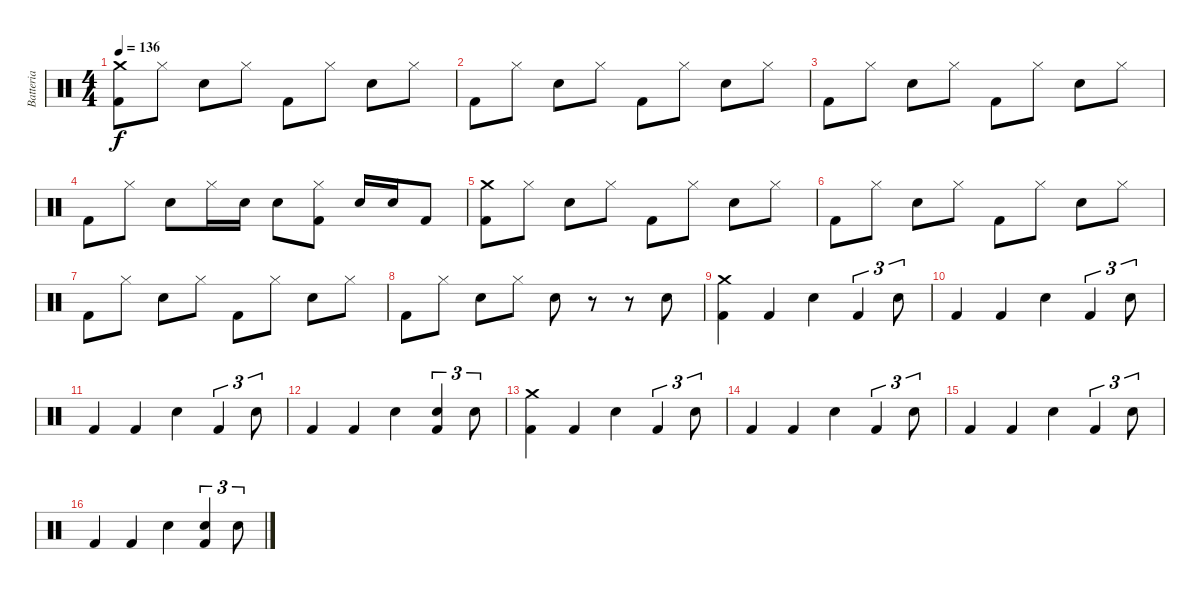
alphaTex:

\track ("Batteria" "Batteria") {instrument percussion}
\staff {score}
\articulation defaults
\ts (4 4)
\tempo 136
\clef neutral
\ks c
("Crash medium (hit)" "Kick (hit) 2").8{dy f} "Hi-Hat (closed)".8 "Electric Snare (hit)".8 "Hi-Hat (closed)".8 "Kick (hit) 2".8 "Hi-Hat (closed)".8 "Electric Snare (hit)".8 "Hi-Hat (closed)".8 |
"Kick (hit) 2".8 "Hi-Hat (closed)".8 "Electric Snare (hit)".8 "Hi-Hat (closed)".8 "Kick (hit) 2".8 "Hi-Hat (closed)".8 "Electric Snare (hit)".8 "Hi-Hat (closed)".8 |
"Kick (hit) 2".8 "Hi-Hat (closed)".8 "Electric Snare (hit)".8 "Hi-Hat (closed)".8 "Kick (hit) 2".8 "Hi-Hat (closed)".8 "Electric Snare (hit)".8 "Hi-Hat (closed)".8 |
"Kick (hit) 2".8 "Hi-Hat (closed)".8 "Electric Snare (hit)".8 "Hi-Hat (closed)".16 "Electric Snare (hit)".16 "Electric Snare (hit)".8 ("Kick (hit) 2" "Hi-Hat (closed)").8 "Electric Snare (hit)".16 "Electric Snare (hit)".16 "Kick (hit) 2".8 |
("Crash medium (hit)" "Kick (hit) 2").8 "Hi-Hat (closed)".8 "Electric Snare (hit)".8 "Hi-Hat (closed)".8 "Kick (hit) 2".8 "Hi-Hat (closed)".8 "Electric Snare (hit)".8 "Hi-Hat (closed)".8 |
"Kick (hit) 2".8 "Hi-Hat (closed)".8 "Electric Snare (hit)".8 "Hi-Hat (closed)".8 "Kick (hit) 2".8 "Hi-Hat (closed)".8 "Electric Snare (hit)".8 "Hi-Hat (closed)".8 |
"Kick (hit) 2".8 "Hi-Hat (closed)".8 "Electric Snare (hit)".8 "Hi-Hat (closed)".8 "Kick (hit) 2".8 "Hi-Hat (closed)".8 "Electric Snare (hit)".8 "Hi-Hat (closed)".8 |
"Kick (hit) 2".8 "Hi-Hat (closed)".8 "Electric Snare (hit)".8 "Hi-Hat (closed)".8 "Electric Snare (hit)".8 r.8 r.8 "Electric Snare (hit)".8 |
("Crash medium (hit)" "Kick (hit) 2").4 "Kick (hit) 2".4 "Electric Snare (hit)".4 "Kick (hit) 2".4{tu (3 2)} "Electric Snare (hit)".8{tu (3 2)} |
"Kick (hit) 2".4 "Kick (hit) 2".4 "Electric Snare (hit)".4 "Kick (hit) 2".4{tu (3 2)} "Electric Snare (hit)".8{tu (3 2)} |
"Kick (hit) 2".4 "Kick (hit) 2".4 "Electric Snare (hit)".4 "Kick (hit) 2".4{tu (3 2)} "Electric Snare (hit)".8{tu (3 2)} |
"Kick (hit) 2".4 "Kick (hit) 2".4 "Electric Snare (hit)".4 ("Electric Snare (hit)" "Kick (hit) 2").4{tu (3 2)} "Electric Snare (hit)".8{tu (3 2)} |
("Crash medium (hit)" "Kick (hit) 2").4 "Kick (hit) 2".4 "Electric Snare (hit)".4 "Kick (hit) 2".4{tu (3 2)} "Electric Snare (hit)".8{tu (3 2)} |
"Kick (hit) 2".4 "Kick (hit) 2".4 "Electric Snare (hit)".4 "Kick (hit) 2".4{tu (3 2)} "Electric Snare (hit)".8{tu (3 2)} |
"Kick (hit) 2".4 "Kick (hit) 2".4 "Electric Snare (hit)".4 "Kick (hit) 2".4{tu (3 2)} "Electric Snare (hit)".8{tu (3 2)} |
"Kick (hit) 2".4 "Kick (hit) 2".4 "Electric Snare (hit)".4 ("Electric Snare (hit)" "Kick (hit) 2").4{tu (3 2)} "Electric Snare (hit)".8{tu (3 2)}
